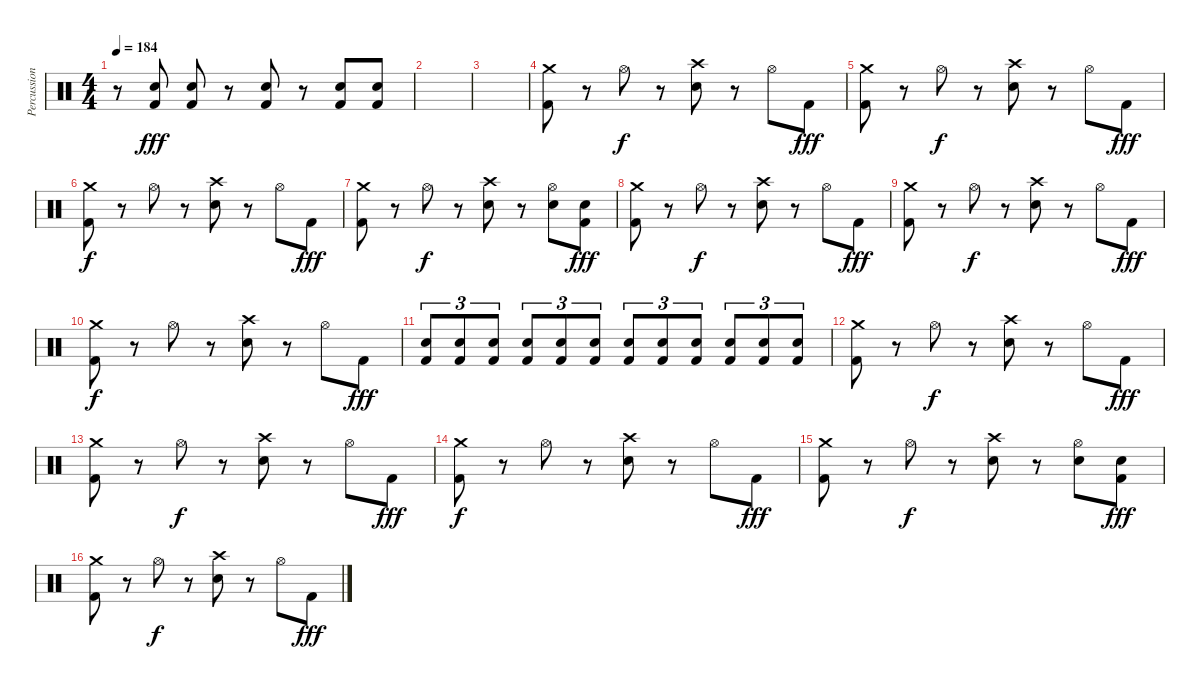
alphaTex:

\track ("Percussion" "Percussion") {instrument percussion}
\staff {score}
\articulation defaults
\ts (4 4)
\tempo 184
\clef neutral
\ks c
r.8{dy fff} ("Snare (hit) 2" "Kick (hit) 2").8 ("Snare (hit) 2" "Kick (hit) 2").8 r.8 ("Snare (hit) 2" "Kick (hit) 2").8 r.8 ("Snare (hit) 2" "Kick (hit) 2").8 ("Snare (hit) 2" "Kick (hit) 2").8 |
|
|
("Crash medium (hit)" "Kick (hit) 2").8 r.8 "Hi-Hat (open)".8{dy f} r.8 ("Crash high (hit)" "Snare (hit) 2").8 r.8 "Hi-Hat (open)".8 "Kick (hit) 2".8{dy fff} |
("Crash medium (hit)" "Kick (hit) 2").8 r.8 "Hi-Hat (open)".8{dy f} r.8 ("Crash high (hit)" "Snare (hit) 2").8 r.8 "Hi-Hat (open)".8 "Kick (hit) 2".8{dy fff} |
("Crash medium (hit)" "Kick (hit) 2").8{dy f} r.8 "Hi-Hat (open)".8 r.8 ("Crash high (hit)" "Snare (hit) 2").8 r.8 "Hi-Hat (open)".8 "Kick (hit) 2".8{dy fff} |
("Crash medium (hit)" "Kick (hit) 2").8 r.8 "Hi-Hat (open)".8{dy f} r.8 ("Crash high (hit)" "Snare (hit) 2").8 r.8 ("Hi-Hat (open)" "Snare (hit) 2").8 ("Snare (hit) 2" "Kick (hit) 2").8{dy fff} |
("Crash medium (hit)" "Kick (hit) 2").8 r.8 "Hi-Hat (open)".8{dy f} r.8 ("Crash high (hit)" "Snare (hit) 2").8 r.8 "Hi-Hat (open)".8 "Kick (hit) 2".8{dy fff} |
("Crash medium (hit)" "Kick (hit) 2").8 r.8 "Hi-Hat (open)".8{dy f} r.8 ("Crash high (hit)" "Snare (hit) 2").8 r.8 "Hi-Hat (open)".8 "Kick (hit) 2".8{dy fff} |
("Crash medium (hit)" "Kick (hit) 2").8{dy f} r.8 "Hi-Hat (open)".8 r.8 ("Crash high (hit)" "Snare (hit) 2").8 r.8 "Hi-Hat (open)".8 "Kick (hit) 2".8{dy fff} |
("Snare (hit) 2" "Kick (hit) 2").8{tu (3 2)} ("Snare (hit) 2" "Kick (hit) 2").8{tu (3 2)} ("Snare (hit) 2" "Kick (hit) 2").8{tu (3 2)} ("Snare (hit) 2" "Kick (hit) 2").8{tu (3 2)} ("Snare (hit) 2" "Kick (hit) 2").8{tu (3 2)} ("Snare (hit) 2" "Kick (hit) 2").8{tu (3 2)} ("Snare (hit) 2" "Kick (hit) 2").8{tu (3 2)} ("Snare (hit) 2" "Kick (hit) 2").8{tu (3 2)} ("Snare (hit) 2" "Kick (hit) 2").8{tu (3 2)} ("Snare (hit) 2" "Kick (hit) 2").8{tu (3 2)} ("Snare (hit) 2" "Kick (hit) 2").8{tu (3 2)} ("Snare (hit) 2" "Kick (hit) 2").8{tu (3 2)} |
("Crash medium (hit)" "Kick (hit) 2").8 r.8 "Hi-Hat (open)".8{dy f} r.8 ("Crash high (hit)" "Snare (hit) 2").8 r.8 "Hi-Hat (open)".8 "Kick (hit) 2".8{dy fff} |
("Crash medium (hit)" "Kick (hit) 2").8 r.8 "Hi-Hat (open)".8{dy f} r.8 ("Crash high (hit)" "Snare (hit) 2").8 r.8 "Hi-Hat (open)".8 "Kick (hit) 2".8{dy fff} |
("Crash medium (hit)" "Kick (hit) 2").8{dy f} r.8 "Hi-Hat (open)".8 r.8 ("Crash high (hit)" "Snare (hit) 2").8 r.8 "Hi-Hat (open)".8 "Kick (hit) 2".8{dy fff} |
("Crash medium (hit)" "Kick (hit) 2").8 r.8 "Hi-Hat (open)".8{dy f} r.8 ("Crash high (hit)" "Snare (hit) 2").8 r.8 ("Hi-Hat (open)" "Snare (hit) 2").8 ("Snare (hit) 2" "Kick (hit) 2").8{dy fff} |
("Crash medium (hit)" "Kick (hit) 2").8 r.8 "Hi-Hat (open)".8{dy f} r.8 ("Crash high (hit)" "Snare (hit) 2").8 r.8 "Hi-Hat (open)".8 "Kick (hit) 2".8{dy fff}
